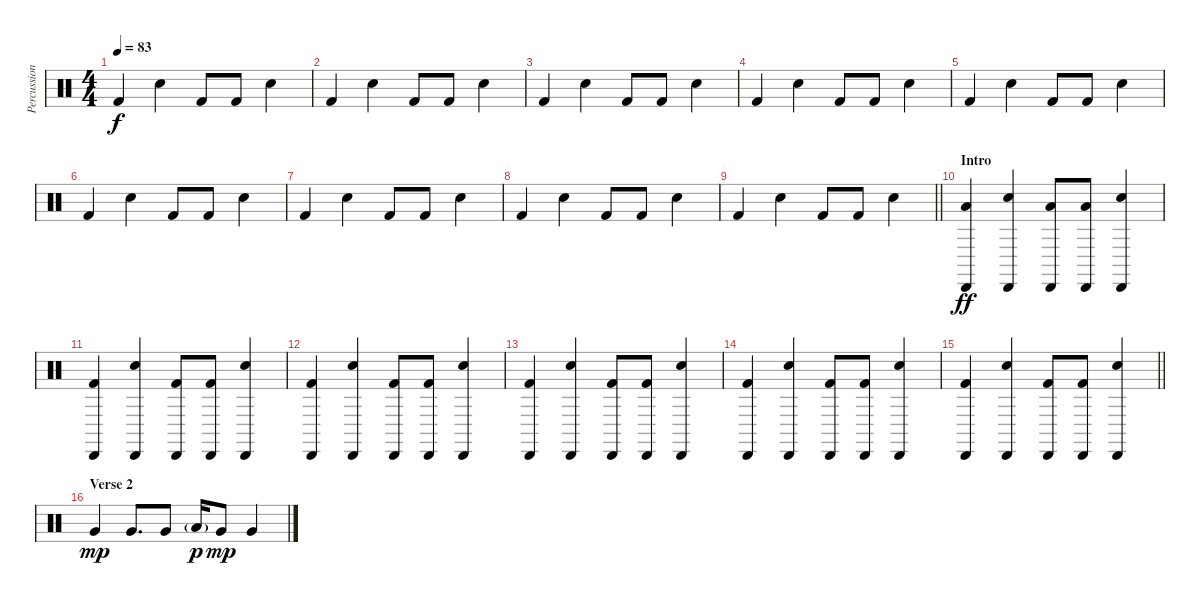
\track ("Percussion" "Percussion") {instrument percussion}
\staff {score}
\articulation defaults
\ts (4 4)
\tempo 83
\clef neutral
\ks c "Kick (hit) 2".4{dy f} "Electric Snare (hit)".4 "Kick (hit) 2".8 "Kick (hit) 2".8 "Electric Snare (hit)".4
|
"Kick (hit) 2".4 "Electric Snare (hit)".4 "Kick (hit) 2".8 "Kick (hit) 2".8 "Electric Snare (hit)".4 |
"Kick (hit) 2".4 "Electric Snare (hit)".4 "Kick (hit) 2".8 "Kick (hit) 2".8 "Electric Snare (hit)".4 |
"Kick (hit) 2".4 "Electric Snare (hit)".4 "Kick (hit) 2".8 "Kick (hit) 2".8 "Electric Snare (hit)".4 |
"Kick (hit) 2".4 "Electric Snare (hit)".4 "Kick (hit) 2".8 "Kick (hit) 2".8 "Electric Snare (hit)".4 |
"Kick (hit) 2".4 "Electric Snare (hit)".4 "Kick (hit) 2".8 "Kick (hit) 2".8 "Electric Snare (hit)".4 |
"Kick (hit) 2".4 "Electric Snare (hit)".4 "Kick (hit) 2".8 "Kick (hit) 2".8 "Electric Snare (hit)".4 |
"Kick (hit) 2".4 "Electric Snare (hit)".4 "Kick (hit) 2".8 "Kick (hit) 2".8 "Electric Snare (hit)".4 |
\barLineRight lightlight "Kick (hit) 2".4 "Electric Snare (hit)".4 "Kick (hit) 2".8 "Kick (hit) 2".8 "Electric Snare (hit)".4
|
\section ("" "Intro")
("Cabasa (hit)" "Low Floor Tom (hit)").4{dy ff} ("Cabasa (hit)" "Electric Snare (hit)").4 ("Cabasa (hit)" "Low Floor Tom (hit)").8 ("Cabasa (hit)" "Low Floor Tom (hit)").8 ("Cabasa (hit)" "Electric Snare (hit)").4 |
("Cabasa (hit)" "Kick (hit) 2").4 ("Cabasa (hit)" "Electric Snare (hit)").4 ("Cabasa (hit)" "Kick (hit) 2").8 ("Cabasa (hit)" "Kick (hit) 2").8 ("Cabasa (hit)" "Electric Snare (hit)").4 |
("Cabasa (hit)" "Kick (hit) 2").4 ("Cabasa (hit)" "Electric Snare (hit)").4 ("Cabasa (hit)" "Kick (hit) 2").8 ("Cabasa (hit)" "Kick (hit) 2").8 ("Cabasa (hit)" "Electric Snare (hit)").4 |
("Cabasa (hit)" "Kick (hit) 2").4 ("Cabasa (hit)" "Electric Snare (hit)").4 ("Cabasa (hit)" "Kick (hit) 2").8 ("Cabasa (hit)" "Kick (hit) 2").8 ("Cabasa (hit)" "Electric Snare (hit)").4 |
("Cabasa (hit)" "Kick (hit) 2").4 ("Cabasa (hit)" "Electric Snare (hit)").4 ("Cabasa (hit)" "Kick (hit) 2").8 ("Cabasa (hit)" "Kick (hit) 2").8 ("Cabasa (hit)" "Electric Snare (hit)").4 |
\barLineRight lightlight
("Cabasa (hit)" "Kick (hit) 2").4 ("Cabasa (hit)" "Electric Snare (hit)").4 ("Cabasa (hit)" "Kick (hit) 2").8 ("Cabasa (hit)" "Kick (hit) 2").8 ("Cabasa (hit)" "Electric Snare (hit)").4 |
\section ("" "Verse 2")
"Very Low Tom (hit)".4{dy mp} "Very Low Tom (hit)".8{d} "Very Low Tom (hit)".8 "Low Floor Tom (hit)"{g}.16{dy p} "Very Low Tom (hit)".8{dy mp} "Very Low Tom (hit)".4
